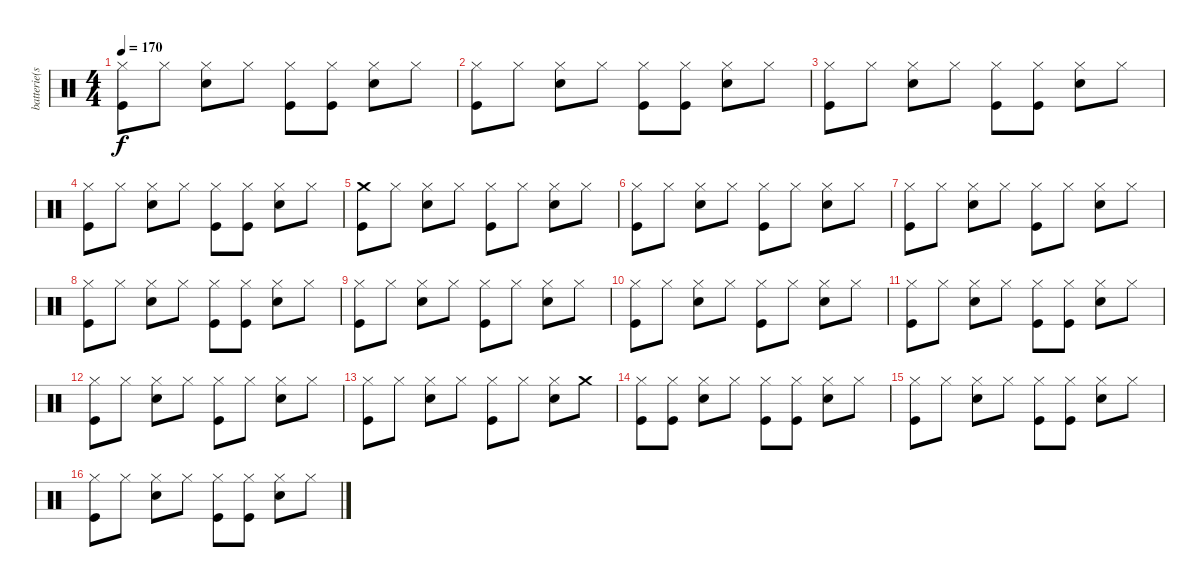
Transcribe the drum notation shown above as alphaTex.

\track ("batterie(steve)" "batterie(s") {instrument percussion}
\staff {score}
\articulation defaults
\ts (4 4)
\tempo 170
\clef neutral
\ks c
("Hi-Hat (closed)" "Kick (hit)").8{dy f} "Hi-Hat (closed)".8 ("Hi-Hat (closed)" "Snare (hit) 2").8 "Hi-Hat (closed)".8 ("Hi-Hat (closed)" "Kick (hit)").8 ("Hi-Hat (closed)" "Kick (hit)").8 ("Hi-Hat (closed)" "Snare (hit) 2").8 "Hi-Hat (closed)".8 |
("Hi-Hat (closed)" "Kick (hit)").8 "Hi-Hat (closed)".8 ("Hi-Hat (closed)" "Snare (hit) 2").8 "Hi-Hat (closed)".8 ("Hi-Hat (closed)" "Kick (hit)").8 ("Hi-Hat (closed)" "Kick (hit)").8 ("Hi-Hat (closed)" "Snare (hit) 2").8 "Hi-Hat (closed)".8 |
("Hi-Hat (closed)" "Kick (hit)").8 "Hi-Hat (closed)".8 ("Hi-Hat (closed)" "Snare (hit) 2").8 "Hi-Hat (closed)".8 ("Hi-Hat (closed)" "Kick (hit)").8 ("Hi-Hat (closed)" "Kick (hit)").8 ("Hi-Hat (closed)" "Snare (hit) 2").8 "Hi-Hat (closed)".8 |
("Hi-Hat (closed)" "Kick (hit)").8 "Hi-Hat (closed)".8 ("Hi-Hat (closed)" "Snare (hit) 2").8 "Hi-Hat (closed)".8 ("Hi-Hat (closed)" "Kick (hit)").8 ("Hi-Hat (closed)" "Kick (hit)").8 ("Hi-Hat (closed)" "Snare (hit) 2").8 "Hi-Hat (closed)".8 |
("Crash medium (hit)" "Kick (hit)").8 "Hi-Hat (closed)".8 ("Hi-Hat (closed)" "Snare (hit) 2").8 "Hi-Hat (closed)".8 ("Hi-Hat (closed)" "Kick (hit)").8 "Hi-Hat (closed)".8 ("Hi-Hat (closed)" "Snare (hit) 2").8 "Hi-Hat (closed)".8 |
("Hi-Hat (closed)" "Kick (hit)").8 "Hi-Hat (closed)".8 ("Hi-Hat (closed)" "Snare (hit) 2").8 "Hi-Hat (closed)".8 ("Hi-Hat (closed)" "Kick (hit)").8 "Hi-Hat (closed)".8 ("Hi-Hat (closed)" "Snare (hit) 2").8 "Hi-Hat (closed)".8 |
("Hi-Hat (closed)" "Kick (hit)").8 "Hi-Hat (closed)".8 ("Hi-Hat (closed)" "Snare (hit) 2").8 "Hi-Hat (closed)".8 ("Hi-Hat (closed)" "Kick (hit)").8 "Hi-Hat (closed)".8 ("Hi-Hat (closed)" "Snare (hit) 2").8 "Hi-Hat (closed)".8 |
("Hi-Hat (closed)" "Kick (hit)").8 "Hi-Hat (closed)".8 ("Hi-Hat (closed)" "Snare (hit) 2").8 "Hi-Hat (closed)".8 ("Hi-Hat (closed)" "Kick (hit)").8 ("Hi-Hat (closed)" "Kick (hit)").8 ("Hi-Hat (closed)" "Snare (hit) 2").8 "Hi-Hat (closed)".8 |
("Hi-Hat (closed)" "Kick (hit)").8 "Hi-Hat (closed)".8 ("Hi-Hat (closed)" "Snare (hit) 2").8 "Hi-Hat (closed)".8 ("Hi-Hat (closed)" "Kick (hit)").8 "Hi-Hat (closed)".8 ("Hi-Hat (closed)" "Snare (hit) 2").8 "Hi-Hat (closed)".8 |
("Hi-Hat (closed)" "Kick (hit)").8 "Hi-Hat (closed)".8 ("Hi-Hat (closed)" "Snare (hit) 2").8 "Hi-Hat (closed)".8 ("Hi-Hat (closed)" "Kick (hit)").8 "Hi-Hat (closed)".8 ("Hi-Hat (closed)" "Snare (hit) 2").8 "Hi-Hat (closed)".8 |
("Hi-Hat (closed)" "Kick (hit)").8 "Hi-Hat (closed)".8 ("Hi-Hat (closed)" "Snare (hit) 2").8 "Hi-Hat (closed)".8 ("Hi-Hat (closed)" "Kick (hit)").8 ("Hi-Hat (closed)" "Kick (hit)").8 ("Hi-Hat (closed)" "Snare (hit) 2").8 "Hi-Hat (closed)".8 |
("Hi-Hat (closed)" "Kick (hit)").8 "Hi-Hat (closed)".8 ("Hi-Hat (closed)" "Snare (hit) 2").8 "Hi-Hat (closed)".8 ("Hi-Hat (closed)" "Kick (hit)").8 "Hi-Hat (closed)".8 ("Hi-Hat (closed)" "Snare (hit) 2").8 "Hi-Hat (closed)".8 |
("Hi-Hat (closed)" "Kick (hit)").8 "Hi-Hat (closed)".8 ("Hi-Hat (closed)" "Snare (hit) 2").8 "Hi-Hat (closed)".8 ("Hi-Hat (closed)" "Kick (hit)").8 "Hi-Hat (closed)".8 ("Hi-Hat (closed)" "Snare (hit) 2").8 "Crash medium (hit)".8 |
("Hi-Hat (closed)" "Kick (hit)").8 ("Hi-Hat (closed)" "Kick (hit)").8 ("Hi-Hat (closed)" "Snare (hit) 2").8 "Hi-Hat (closed)".8 ("Hi-Hat (closed)" "Kick (hit)").8 ("Hi-Hat (closed)" "Kick (hit)").8 ("Hi-Hat (closed)" "Snare (hit) 2").8 "Hi-Hat (closed)".8 |
("Hi-Hat (closed)" "Kick (hit)").8 "Hi-Hat (closed)".8 ("Hi-Hat (closed)" "Snare (hit) 2").8 "Hi-Hat (closed)".8 ("Hi-Hat (closed)" "Kick (hit)").8 ("Hi-Hat (closed)" "Kick (hit)").8 ("Hi-Hat (closed)" "Snare (hit) 2").8 "Hi-Hat (closed)".8 |
("Hi-Hat (closed)" "Kick (hit)").8 "Hi-Hat (closed)".8 ("Hi-Hat (closed)" "Snare (hit) 2").8 "Hi-Hat (closed)".8 ("Hi-Hat (closed)" "Kick (hit)").8 ("Hi-Hat (closed)" "Kick (hit)").8 ("Hi-Hat (closed)" "Snare (hit) 2").8 "Hi-Hat (closed)".8
